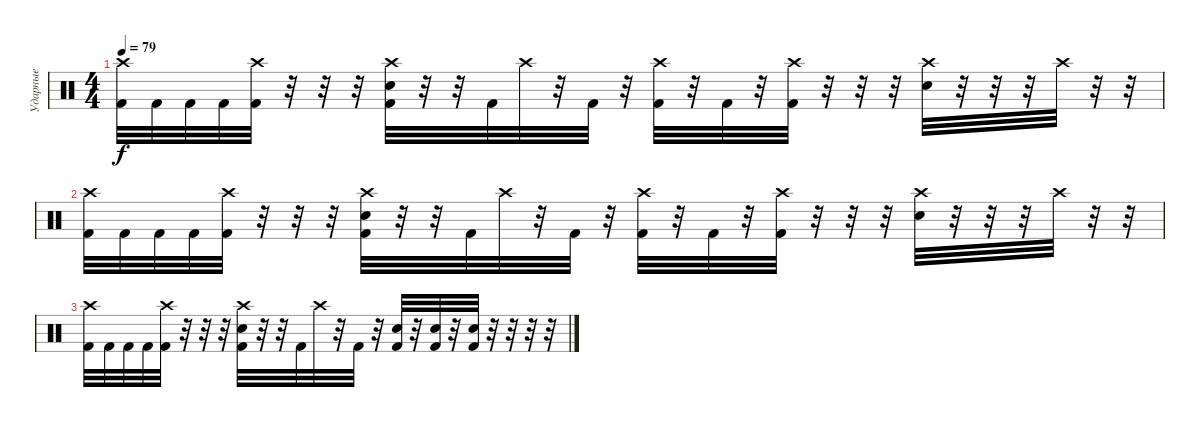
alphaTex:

\track ("Ударные" "Ударные") {instrument percussion}
\staff {score}
\articulation defaults
\ts (4 4)
\tempo 79
\clef neutral
\ks c
("Crash high (hit)" "Kick (hit) 2").32{dy f} "Kick (hit) 2".32 "Kick (hit) 2".32 "Kick (hit) 2".32 ("Crash high (hit)" "Kick (hit) 2").32 r.32 r.32 r.32 ("Crash high (hit)" "Kick (hit) 2" "Electric Snare (hit)").32 r.32 r.32 "Kick (hit) 2".32 "Crash high (hit)".32 r.32 "Kick (hit) 2".32 r.32 ("Crash high (hit)" "Kick (hit) 2").32 r.32 "Kick (hit) 2".32 r.32 ("Crash high (hit)" "Kick (hit) 2").32 r.32 r.32 r.32 ("Crash high (hit)" "Electric Snare (hit)").32 r.32 r.32 r.32 "Crash high (hit)".32 r.32 r.32 |
("Crash high (hit)" "Kick (hit) 2").32 "Kick (hit) 2".32 "Kick (hit) 2".32 "Kick (hit) 2".32 ("Crash high (hit)" "Kick (hit) 2").32 r.32 r.32 r.32 ("Crash high (hit)" "Kick (hit) 2" "Electric Snare (hit)").32 r.32 r.32 "Kick (hit) 2".32 "Crash high (hit)".32 r.32 "Kick (hit) 2".32 r.32 ("Crash high (hit)" "Kick (hit) 2").32 r.32 "Kick (hit) 2".32 r.32 ("Crash high (hit)" "Kick (hit) 2").32 r.32 r.32 r.32 ("Crash high (hit)" "Electric Snare (hit)").32 r.32 r.32 r.32 "Crash high (hit)".32 r.32 r.32 |
("Crash high (hit)" "Kick (hit) 2").32 "Kick (hit) 2".32 "Kick (hit) 2".32 "Kick (hit) 2".32 ("Crash high (hit)" "Kick (hit) 2").32 r.32 r.32 r.32 ("Crash high (hit)" "Kick (hit) 2" "Electric Snare (hit)").32 r.32 r.32 "Kick (hit) 2".32 "Crash high (hit)".32 r.32 "Kick (hit) 2".32 r.32 ("Kick (hit) 2" "Electric Snare (hit)").32 r.32 ("Kick (hit) 2" "Electric Snare (hit)").32 r.32 ("Kick (hit) 2" "Electric Snare (hit)").32 r.32 r.32 r.32 r.32
